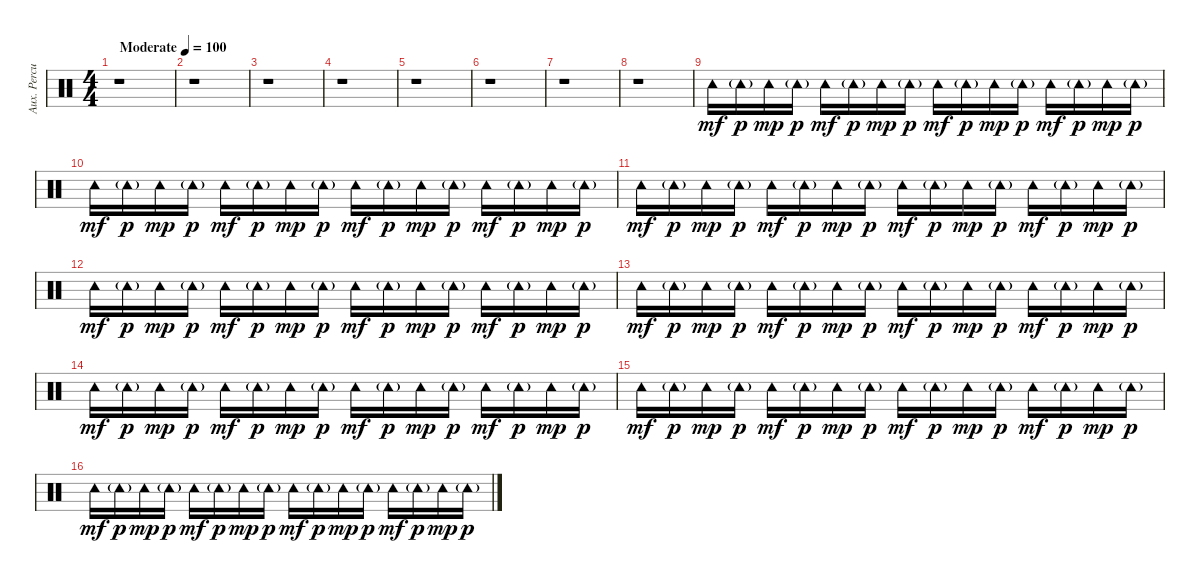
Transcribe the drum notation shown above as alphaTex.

\track ("Aux. Percussion" "Aux. Percu") {instrument percussion}
\staff {score}
\articulation defaults
\ts (4 4)
\tempo (100 "Moderate")
\clef neutral
\ks c
r.1{dy mf} |
r.1 |
r.1 |
r.1 |
r.1 |
r.1 |
r.1 |
r.1 |
"Tambourine (hit)".16 "Tambourine (hit)"{g}.16{dy p} "Tambourine (hit)".16{dy mp} "Tambourine (hit)"{g}.16{dy p} "Tambourine (hit)".16{dy mf} "Tambourine (hit)"{g}.16{dy p} "Tambourine (hit)".16{dy mp} "Tambourine (hit)"{g}.16{dy p} "Tambourine (hit)".16{dy mf} "Tambourine (hit)"{g}.16{dy p} "Tambourine (hit)".16{dy mp} "Tambourine (hit)"{g}.16{dy p} "Tambourine (hit)".16{dy mf} "Tambourine (hit)"{g}.16{dy p} "Tambourine (hit)".16{dy mp} "Tambourine (hit)"{g}.16{dy p} |
"Tambourine (hit)".16{dy mf} "Tambourine (hit)"{g}.16{dy p} "Tambourine (hit)".16{dy mp} "Tambourine (hit)"{g}.16{dy p} "Tambourine (hit)".16{dy mf} "Tambourine (hit)"{g}.16{dy p} "Tambourine (hit)".16{dy mp} "Tambourine (hit)"{g}.16{dy p} "Tambourine (hit)".16{dy mf} "Tambourine (hit)"{g}.16{dy p} "Tambourine (hit)".16{dy mp} "Tambourine (hit)"{g}.16{dy p} "Tambourine (hit)".16{dy mf} "Tambourine (hit)"{g}.16{dy p} "Tambourine (hit)".16{dy mp} "Tambourine (hit)"{g}.16{dy p} |
"Tambourine (hit)".16{dy mf} "Tambourine (hit)"{g}.16{dy p} "Tambourine (hit)".16{dy mp} "Tambourine (hit)"{g}.16{dy p} "Tambourine (hit)".16{dy mf} "Tambourine (hit)"{g}.16{dy p} "Tambourine (hit)".16{dy mp} "Tambourine (hit)"{g}.16{dy p} "Tambourine (hit)".16{dy mf} "Tambourine (hit)"{g}.16{dy p} "Tambourine (hit)".16{dy mp} "Tambourine (hit)"{g}.16{dy p} "Tambourine (hit)".16{dy mf} "Tambourine (hit)"{g}.16{dy p} "Tambourine (hit)".16{dy mp} "Tambourine (hit)"{g}.16{dy p} |
"Tambourine (hit)".16{dy mf} "Tambourine (hit)"{g}.16{dy p} "Tambourine (hit)".16{dy mp} "Tambourine (hit)"{g}.16{dy p} "Tambourine (hit)".16{dy mf} "Tambourine (hit)"{g}.16{dy p} "Tambourine (hit)".16{dy mp} "Tambourine (hit)"{g}.16{dy p} "Tambourine (hit)".16{dy mf} "Tambourine (hit)"{g}.16{dy p} "Tambourine (hit)".16{dy mp} "Tambourine (hit)"{g}.16{dy p} "Tambourine (hit)".16{dy mf} "Tambourine (hit)"{g}.16{dy p} "Tambourine (hit)".16{dy mp} "Tambourine (hit)"{g}.16{dy p} |
"Tambourine (hit)".16{dy mf} "Tambourine (hit)"{g}.16{dy p} "Tambourine (hit)".16{dy mp} "Tambourine (hit)"{g}.16{dy p} "Tambourine (hit)".16{dy mf} "Tambourine (hit)"{g}.16{dy p} "Tambourine (hit)".16{dy mp} "Tambourine (hit)"{g}.16{dy p} "Tambourine (hit)".16{dy mf} "Tambourine (hit)"{g}.16{dy p} "Tambourine (hit)".16{dy mp} "Tambourine (hit)"{g}.16{dy p} "Tambourine (hit)".16{dy mf} "Tambourine (hit)"{g}.16{dy p} "Tambourine (hit)".16{dy mp} "Tambourine (hit)"{g}.16{dy p} |
"Tambourine (hit)".16{dy mf} "Tambourine (hit)"{g}.16{dy p} "Tambourine (hit)".16{dy mp} "Tambourine (hit)"{g}.16{dy p} "Tambourine (hit)".16{dy mf} "Tambourine (hit)"{g}.16{dy p} "Tambourine (hit)".16{dy mp} "Tambourine (hit)"{g}.16{dy p} "Tambourine (hit)".16{dy mf} "Tambourine (hit)"{g}.16{dy p} "Tambourine (hit)".16{dy mp} "Tambourine (hit)"{g}.16{dy p} "Tambourine (hit)".16{dy mf} "Tambourine (hit)"{g}.16{dy p} "Tambourine (hit)".16{dy mp} "Tambourine (hit)"{g}.16{dy p} |
"Tambourine (hit)".16{dy mf} "Tambourine (hit)"{g}.16{dy p} "Tambourine (hit)".16{dy mp} "Tambourine (hit)"{g}.16{dy p} "Tambourine (hit)".16{dy mf} "Tambourine (hit)"{g}.16{dy p} "Tambourine (hit)".16{dy mp} "Tambourine (hit)"{g}.16{dy p} "Tambourine (hit)".16{dy mf} "Tambourine (hit)"{g}.16{dy p} "Tambourine (hit)".16{dy mp} "Tambourine (hit)"{g}.16{dy p} "Tambourine (hit)".16{dy mf} "Tambourine (hit)"{g}.16{dy p} "Tambourine (hit)".16{dy mp} "Tambourine (hit)"{g}.16{dy p} |
"Tambourine (hit)".16{dy mf} "Tambourine (hit)"{g}.16{dy p} "Tambourine (hit)".16{dy mp} "Tambourine (hit)"{g}.16{dy p} "Tambourine (hit)".16{dy mf} "Tambourine (hit)"{g}.16{dy p} "Tambourine (hit)".16{dy mp} "Tambourine (hit)"{g}.16{dy p} "Tambourine (hit)".16{dy mf} "Tambourine (hit)"{g}.16{dy p} "Tambourine (hit)".16{dy mp} "Tambourine (hit)"{g}.16{dy p} "Tambourine (hit)".16{dy mf} "Tambourine (hit)"{g}.16{dy p} "Tambourine (hit)".16{dy mp} "Tambourine (hit)"{g}.16{dy p}
